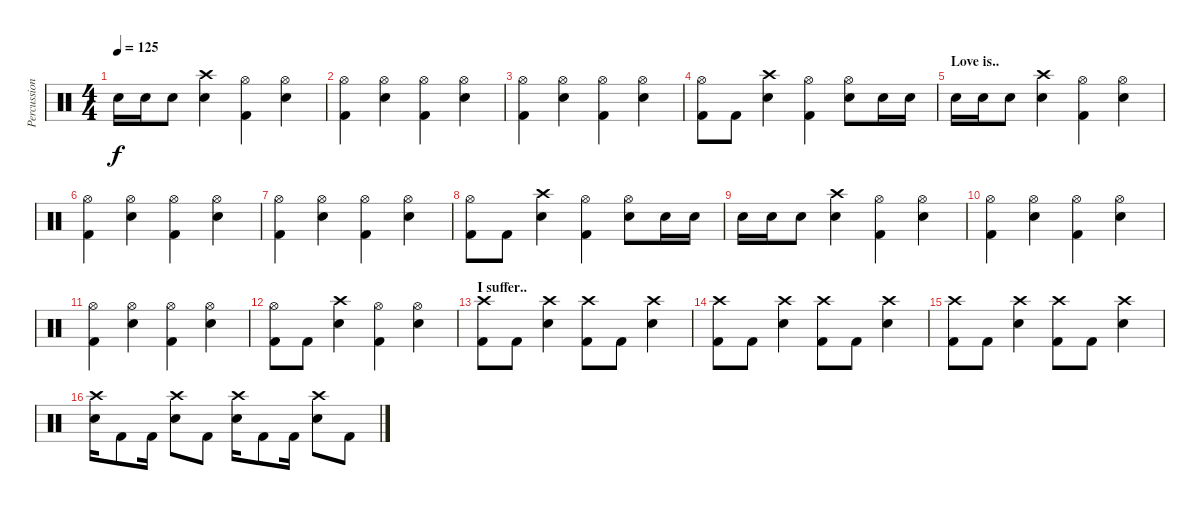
\track ("Percussion" "Percussion") {instrument percussion}
\staff {score}
\articulation defaults
\ts (4 4)
\tempo 125
\clef neutral
\ks c "Electric Snare (hit)".16{dy f} "Electric Snare (hit)".16 "Electric Snare (hit)".8
("Electric Snare (hit)" "Crash high (hit)").4 ("Kick (hit) 2" "Hi-Hat (open)").4 ("Electric Snare (hit)" "Hi-Hat (open)").4 |
("Kick (hit) 2" "Hi-Hat (open)").4 ("Electric Snare (hit)" "Hi-Hat (open)").4 ("Kick (hit) 2" "Hi-Hat (open)").4 ("Electric Snare (hit)" "Hi-Hat (open)").4 |
("Kick (hit) 2" "Hi-Hat (open)").4 ("Electric Snare (hit)" "Hi-Hat (open)").4 ("Kick (hit) 2" "Hi-Hat (open)").4 ("Electric Snare (hit)" "Hi-Hat (open)").4 |
("Kick (hit) 2" "Hi-Hat (open)").8 "Kick (hit) 2".8 ("Electric Snare (hit)" "Crash high (hit)").4 ("Kick (hit) 2" "Hi-Hat (open)").4 ("Electric Snare (hit)" "Hi-Hat (open)").8 "Electric Snare (hit)".16 "Electric Snare (hit)".16 |
\section ("" "Love is..")
"Electric Snare (hit)".16 "Electric Snare (hit)".16 "Electric Snare (hit)".8 ("Electric Snare (hit)" "Crash high (hit)").4 ("Kick (hit) 2" "Hi-Hat (open)").4 ("Electric Snare (hit)" "Hi-Hat (open)").4 |
("Kick (hit) 2" "Hi-Hat (open)").4 ("Electric Snare (hit)" "Hi-Hat (open)").4 ("Kick (hit) 2" "Hi-Hat (open)").4 ("Electric Snare (hit)" "Hi-Hat (open)").4 |
("Kick (hit) 2" "Hi-Hat (open)").4 ("Electric Snare (hit)" "Hi-Hat (open)").4 ("Kick (hit) 2" "Hi-Hat (open)").4 ("Electric Snare (hit)" "Hi-Hat (open)").4 |
("Kick (hit) 2" "Hi-Hat (open)").8 "Kick (hit) 2".8 ("Electric Snare (hit)" "Crash high (hit)").4 ("Kick (hit) 2" "Hi-Hat (open)").4 ("Electric Snare (hit)" "Hi-Hat (open)").8 "Electric Snare (hit)".16 "Electric Snare (hit)".16 |
"Electric Snare (hit)".16 "Electric Snare (hit)".16 "Electric Snare (hit)".8 ("Electric Snare (hit)" "Crash high (hit)").4 ("Kick (hit) 2" "Hi-Hat (open)").4 ("Electric Snare (hit)" "Hi-Hat (open)").4 |
("Kick (hit) 2" "Hi-Hat (open)").4 ("Electric Snare (hit)" "Hi-Hat (open)").4 ("Kick (hit) 2" "Hi-Hat (open)").4 ("Electric Snare (hit)" "Hi-Hat (open)").4 |
("Kick (hit) 2" "Hi-Hat (open)").4 ("Electric Snare (hit)" "Hi-Hat (open)").4 ("Kick (hit) 2" "Hi-Hat (open)").4 ("Electric Snare (hit)" "Hi-Hat (open)").4 |
("Kick (hit) 2" "Hi-Hat (open)").8 "Kick (hit) 2".8 ("Electric Snare (hit)" "Crash high (hit)").4 ("Kick (hit) 2" "Hi-Hat (open)").4 ("Electric Snare (hit)" "Hi-Hat (open)").4 |
\section ("" "I suffer..")
("Kick (hit) 2" "Crash high (hit)").8 "Kick (hit) 2".8 ("Electric Snare (hit)" "Crash high (hit)").4 ("Kick (hit) 2" "Crash high (hit)").8 "Kick (hit) 2".8 ("Electric Snare (hit)" "Crash high (hit)").4 |
("Kick (hit) 2" "Crash high (hit)").8 "Kick (hit) 2".8 ("Electric Snare (hit)" "Crash high (hit)").4 ("Kick (hit) 2" "Crash high (hit)").8 "Kick (hit) 2".8 ("Electric Snare (hit)" "Crash high (hit)").4 |
("Kick (hit) 2" "Crash high (hit)").8 "Kick (hit) 2".8 ("Electric Snare (hit)" "Crash high (hit)").4 ("Kick (hit) 2" "Crash high (hit)").8 "Kick (hit) 2".8 ("Electric Snare (hit)" "Crash high (hit)").4 |
("Electric Snare (hit)" "Crash high (hit)").16 "Kick (hit) 2".8 "Kick (hit) 2".16 ("Electric Snare (hit)" "Crash high (hit)").8 "Kick (hit) 2".8 ("Electric Snare (hit)" "Crash high (hit)").16 "Kick (hit) 2".8 "Kick (hit) 2".16 ("Electric Snare (hit)" "Crash high (hit)").8 "Kick (hit) 2".8
